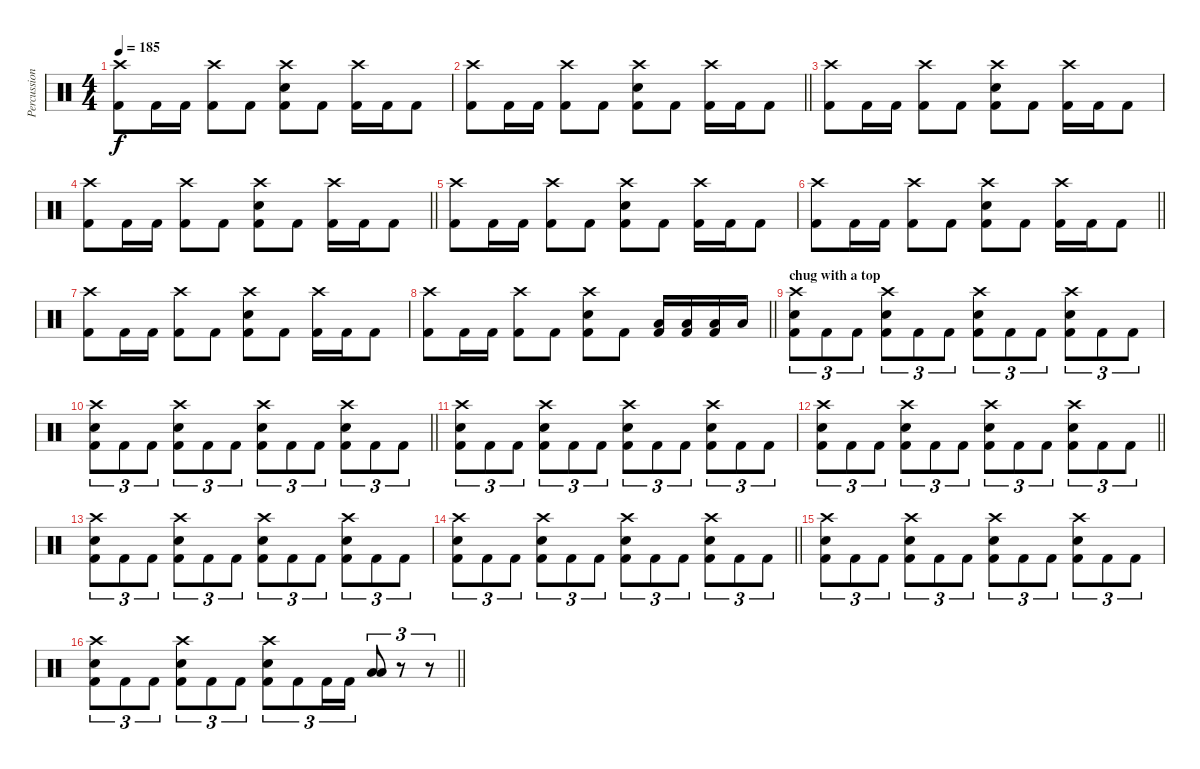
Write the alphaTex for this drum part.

\track ("Percussion" "Percussion") {instrument percussion}
\staff {score}
\articulation defaults
\ts (4 4)
\tempo 185
\clef neutral
\ks c
("Crash high (hit)" "Kick (hit) 2").8{dy f} "Kick (hit) 2".16 "Kick (hit) 2".16 ("Crash high (hit)" "Kick (hit) 2").8 "Kick (hit) 2".8 ("Crash high (hit)" "Electric Snare (hit)" "Kick (hit) 2").8 "Kick (hit) 2".8 ("Crash high (hit)" "Kick (hit) 2").16 "Kick (hit) 2".16 "Kick (hit) 2".8 |
\barLineRight lightlight
("Crash high (hit)" "Kick (hit) 2").8 "Kick (hit) 2".16 "Kick (hit) 2".16 ("Crash high (hit)" "Kick (hit) 2").8 "Kick (hit) 2".8 ("Crash high (hit)" "Electric Snare (hit)" "Kick (hit) 2").8 "Kick (hit) 2".8 ("Crash high (hit)" "Kick (hit) 2").16 "Kick (hit) 2".16 "Kick (hit) 2".8 |
\section ("" "")
("Crash high (hit)" "Kick (hit) 2").8 "Kick (hit) 2".16 "Kick (hit) 2".16 ("Crash high (hit)" "Kick (hit) 2").8 "Kick (hit) 2".8 ("Crash high (hit)" "Electric Snare (hit)" "Kick (hit) 2").8 "Kick (hit) 2".8 ("Crash high (hit)" "Kick (hit) 2").16 "Kick (hit) 2".16 "Kick (hit) 2".8 |
\barLineRight lightlight
("Crash high (hit)" "Kick (hit) 2").8 "Kick (hit) 2".16 "Kick (hit) 2".16 ("Crash high (hit)" "Kick (hit) 2").8 "Kick (hit) 2".8 ("Crash high (hit)" "Electric Snare (hit)" "Kick (hit) 2").8 "Kick (hit) 2".8 ("Crash high (hit)" "Kick (hit) 2").16 "Kick (hit) 2".16 "Kick (hit) 2".8 |
("Crash high (hit)" "Kick (hit) 2").8 "Kick (hit) 2".16 "Kick (hit) 2".16 ("Crash high (hit)" "Kick (hit) 2").8 "Kick (hit) 2".8 ("Crash high (hit)" "Electric Snare (hit)" "Kick (hit) 2").8 "Kick (hit) 2".8 ("Crash high (hit)" "Kick (hit) 2").16 "Kick (hit) 2".16 "Kick (hit) 2".8 |
\barLineRight lightlight
("Crash high (hit)" "Kick (hit) 2").8 "Kick (hit) 2".16 "Kick (hit) 2".16 ("Crash high (hit)" "Kick (hit) 2").8 "Kick (hit) 2".8 ("Crash high (hit)" "Electric Snare (hit)" "Kick (hit) 2").8 "Kick (hit) 2".8 ("Crash high (hit)" "Kick (hit) 2").16 "Kick (hit) 2".16 "Kick (hit) 2".8 |
("Crash high (hit)" "Kick (hit) 2").8 "Kick (hit) 2".16 "Kick (hit) 2".16 ("Crash high (hit)" "Kick (hit) 2").8 "Kick (hit) 2".8 ("Crash high (hit)" "Electric Snare (hit)" "Kick (hit) 2").8 "Kick (hit) 2".8 ("Crash high (hit)" "Kick (hit) 2").16 "Kick (hit) 2".16 "Kick (hit) 2".8 |
\barLineRight lightlight
("Crash high (hit)" "Kick (hit) 2").8 "Kick (hit) 2".16 "Kick (hit) 2".16 ("Crash high (hit)" "Kick (hit) 2").8 "Kick (hit) 2".8 ("Crash high (hit)" "Electric Snare (hit)" "Kick (hit) 2").8 "Kick (hit) 2".8 ("Low Tom (hit)" "Kick (hit) 2").16 ("Low Tom (hit)" "Kick (hit) 2").16 ("Low Floor Tom (hit)" "Kick (hit) 2").16 "Low Floor Tom (hit)".16 |
\section ("" "chug with a top")
("Crash high (hit)" "Electric Snare (hit)" "Kick (hit) 2").8{tu (3 2)} "Kick (hit) 2".8{tu (3 2)} "Kick (hit) 2".8{tu (3 2)} ("Crash high (hit)" "Electric Snare (hit)" "Kick (hit) 2").8{tu (3 2)} "Kick (hit) 2".8{tu (3 2)} "Kick (hit) 2".8{tu (3 2)} ("Crash high (hit)" "Electric Snare (hit)" "Kick (hit) 2").8{tu (3 2)} "Kick (hit) 2".8{tu (3 2)} "Kick (hit) 2".8{tu (3 2)} ("Crash high (hit)" "Electric Snare (hit)" "Kick (hit) 2").8{tu (3 2)} "Kick (hit) 2".8{tu (3 2)} "Kick (hit) 2".8{tu (3 2)} |
\barLineRight lightlight
("Crash high (hit)" "Electric Snare (hit)" "Kick (hit) 2").8{tu (3 2)} "Kick (hit) 2".8{tu (3 2)} "Kick (hit) 2".8{tu (3 2)} ("Crash high (hit)" "Electric Snare (hit)" "Kick (hit) 2").8{tu (3 2)} "Kick (hit) 2".8{tu (3 2)} "Kick (hit) 2".8{tu (3 2)} ("Crash high (hit)" "Electric Snare (hit)" "Kick (hit) 2").8{tu (3 2)} "Kick (hit) 2".8{tu (3 2)} "Kick (hit) 2".8{tu (3 2)} ("Crash high (hit)" "Electric Snare (hit)" "Kick (hit) 2").8{tu (3 2)} "Kick (hit) 2".8{tu (3 2)} "Kick (hit) 2".8{tu (3 2)} |
("Crash high (hit)" "Electric Snare (hit)" "Kick (hit) 2").8{tu (3 2)} "Kick (hit) 2".8{tu (3 2)} "Kick (hit) 2".8{tu (3 2)} ("Crash high (hit)" "Electric Snare (hit)" "Kick (hit) 2").8{tu (3 2)} "Kick (hit) 2".8{tu (3 2)} "Kick (hit) 2".8{tu (3 2)} ("Crash high (hit)" "Electric Snare (hit)" "Kick (hit) 2").8{tu (3 2)} "Kick (hit) 2".8{tu (3 2)} "Kick (hit) 2".8{tu (3 2)} ("Crash high (hit)" "Electric Snare (hit)" "Kick (hit) 2").8{tu (3 2)} "Kick (hit) 2".8{tu (3 2)} "Kick (hit) 2".8{tu (3 2)} |
\barLineRight lightlight
("Crash high (hit)" "Electric Snare (hit)" "Kick (hit) 2").8{tu (3 2)} "Kick (hit) 2".8{tu (3 2)} "Kick (hit) 2".8{tu (3 2)} ("Crash high (hit)" "Electric Snare (hit)" "Kick (hit) 2").8{tu (3 2)} "Kick (hit) 2".8{tu (3 2)} "Kick (hit) 2".8{tu (3 2)} ("Crash high (hit)" "Electric Snare (hit)" "Kick (hit) 2").8{tu (3 2)} "Kick (hit) 2".8{tu (3 2)} "Kick (hit) 2".8{tu (3 2)} ("Crash high (hit)" "Electric Snare (hit)" "Kick (hit) 2").8{tu (3 2)} "Kick (hit) 2".8{tu (3 2)} "Kick (hit) 2".8{tu (3 2)} |
("Crash high (hit)" "Electric Snare (hit)" "Kick (hit) 2").8{tu (3 2)} "Kick (hit) 2".8{tu (3 2)} "Kick (hit) 2".8{tu (3 2)} ("Crash high (hit)" "Electric Snare (hit)" "Kick (hit) 2").8{tu (3 2)} "Kick (hit) 2".8{tu (3 2)} "Kick (hit) 2".8{tu (3 2)} ("Crash high (hit)" "Electric Snare (hit)" "Kick (hit) 2").8{tu (3 2)} "Kick (hit) 2".8{tu (3 2)} "Kick (hit) 2".8{tu (3 2)} ("Crash high (hit)" "Electric Snare (hit)" "Kick (hit) 2").8{tu (3 2)} "Kick (hit) 2".8{tu (3 2)} "Kick (hit) 2".8{tu (3 2)} |
\barLineRight lightlight
("Crash high (hit)" "Electric Snare (hit)" "Kick (hit) 2").8{tu (3 2)} "Kick (hit) 2".8{tu (3 2)} "Kick (hit) 2".8{tu (3 2)} ("Crash high (hit)" "Electric Snare (hit)" "Kick (hit) 2").8{tu (3 2)} "Kick (hit) 2".8{tu (3 2)} "Kick (hit) 2".8{tu (3 2)} ("Crash high (hit)" "Electric Snare (hit)" "Kick (hit) 2").8{tu (3 2)} "Kick (hit) 2".8{tu (3 2)} "Kick (hit) 2".8{tu (3 2)} ("Crash high (hit)" "Electric Snare (hit)" "Kick (hit) 2").8{tu (3 2)} "Kick (hit) 2".8{tu (3 2)} "Kick (hit) 2".8{tu (3 2)} |
("Crash high (hit)" "Electric Snare (hit)" "Kick (hit) 2").8{tu (3 2)} "Kick (hit) 2".8{tu (3 2)} "Kick (hit) 2".8{tu (3 2)} ("Crash high (hit)" "Electric Snare (hit)" "Kick (hit) 2").8{tu (3 2)} "Kick (hit) 2".8{tu (3 2)} "Kick (hit) 2".8{tu (3 2)} ("Crash high (hit)" "Electric Snare (hit)" "Kick (hit) 2").8{tu (3 2)} "Kick (hit) 2".8{tu (3 2)} "Kick (hit) 2".8{tu (3 2)} ("Crash high (hit)" "Electric Snare (hit)" "Kick (hit) 2").8{tu (3 2)} "Kick (hit) 2".8{tu (3 2)} "Kick (hit) 2".8{tu (3 2)} |
\barLineRight lightlight
("Crash high (hit)" "Electric Snare (hit)" "Kick (hit) 2").8{tu (3 2)} "Kick (hit) 2".8{tu (3 2)} "Kick (hit) 2".8{tu (3 2)} ("Crash high (hit)" "Electric Snare (hit)" "Kick (hit) 2").8{tu (3 2)} "Kick (hit) 2".8{tu (3 2)} "Kick (hit) 2".8{tu (3 2)} ("Crash high (hit)" "Electric Snare (hit)" "Kick (hit) 2").8{tu (3 2)} "Kick (hit) 2".8{tu (3 2)} "Kick (hit) 2".16{tu (3 2)} "Kick (hit) 2".16{tu (3 2)} ("Low Tom (hit)" "Low Floor Tom (hit)").8{tu (3 2)} r.8{tu (3 2)} r.8{tu (3 2)}
